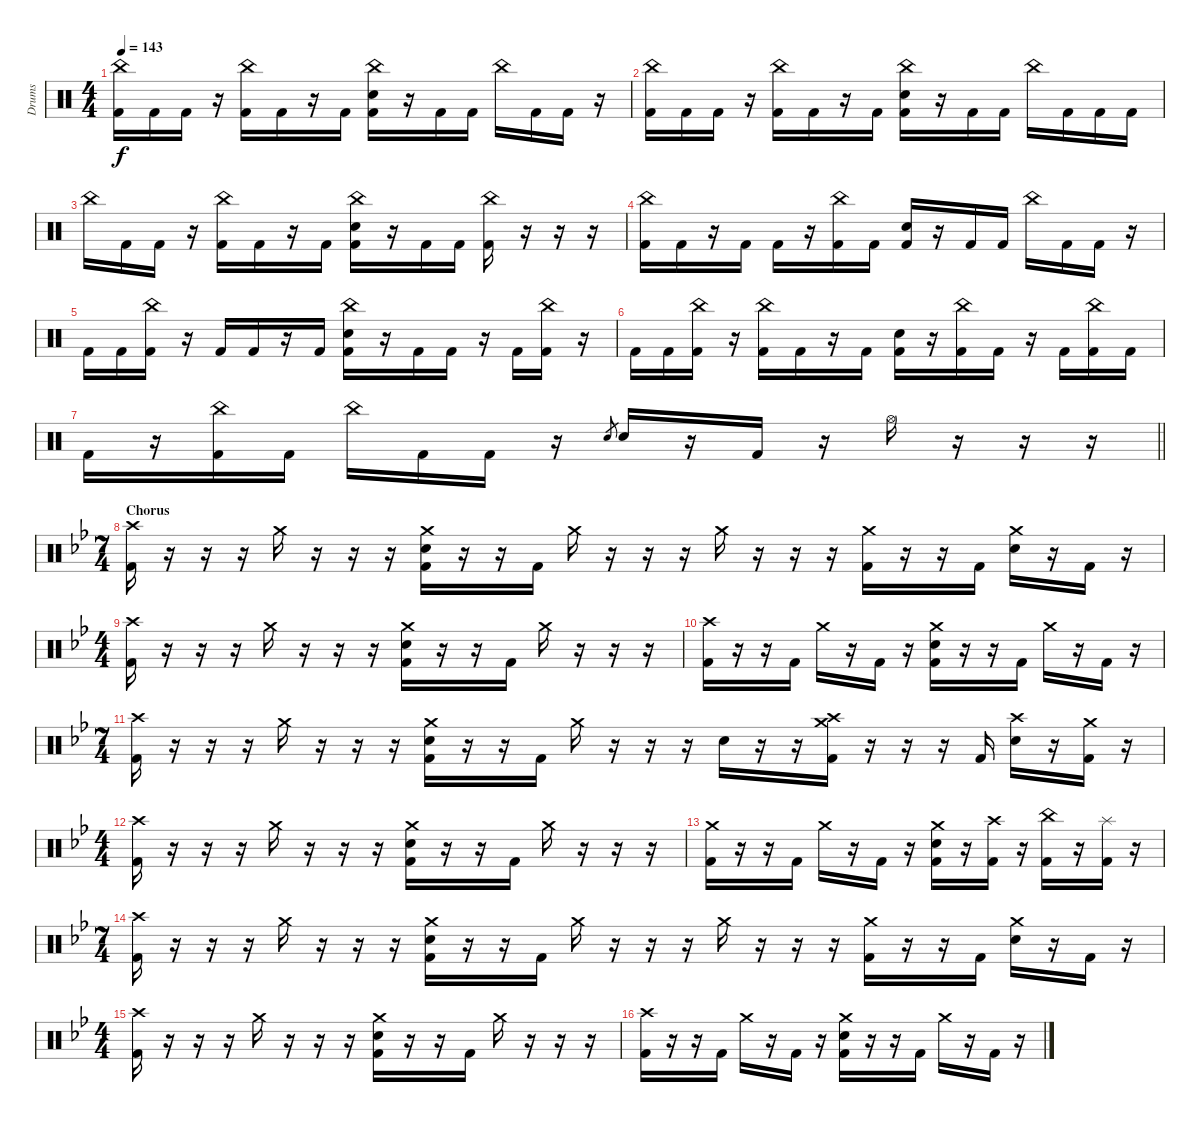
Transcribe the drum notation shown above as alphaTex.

\track ("Drums" "Drums") {instrument percussion}
\staff {score}
\articulation defaults
\ts (4 4)
\tempo 143
\clef neutral
\ks c
("China (hit)" "Kick (hit) 2").16{dy f} "Kick (hit) 2".16 "Kick (hit) 2".16 r.16 ("China (hit)" "Kick (hit) 2").16 "Kick (hit) 2".16 r.16 "Kick (hit) 2".16 ("China (hit)" "Electric Snare (hit)" "Kick (hit) 2").16 r.16 "Kick (hit) 2".16 "Kick (hit) 2".16 "China (hit)".16 "Kick (hit) 2".16 "Kick (hit) 2".16 r.16 |
("China (hit)" "Kick (hit) 2").16 "Kick (hit) 2".16 "Kick (hit) 2".16 r.16 ("China (hit)" "Kick (hit) 2").16 "Kick (hit) 2".16 r.16 "Kick (hit) 2".16 ("China (hit)" "Electric Snare (hit)" "Kick (hit) 2").16 r.16 "Kick (hit) 2".16 "Kick (hit) 2".16 "China (hit)".16 "Kick (hit) 2".16 "Kick (hit) 2".16 "Kick (hit) 2".16 |
"China (hit)".16 "Kick (hit) 2".16 "Kick (hit) 2".16 r.16 ("China (hit)" "Kick (hit) 2").16 "Kick (hit) 2".16 r.16 "Kick (hit) 2".16 ("China (hit)" "Electric Snare (hit)" "Kick (hit) 2").16 r.16 "Kick (hit) 2".16 "Kick (hit) 2".16 ("China (hit)" "Kick (hit) 2").16 r.16 r.16 r.16 |
("China (hit)" "Kick (hit) 2").16 "Kick (hit) 2".16 r.16 "Kick (hit) 2".16 "Kick (hit) 2".16 r.16 ("China (hit)" "Kick (hit) 2").16 "Kick (hit) 2".16 ("Electric Snare (hit)" "Kick (hit) 2").16 r.16 "Kick (hit) 2".16 "Kick (hit) 2".16 "China (hit)".16 "Kick (hit) 2".16 "Kick (hit) 2".16 r.16 |
"Kick (hit) 2".16 "Kick (hit) 2".16 ("China (hit)" "Kick (hit) 2").16 r.16 "Kick (hit) 2".16 "Kick (hit) 2".16 r.16 "Kick (hit) 2".16 ("China (hit)" "Electric Snare (hit)" "Kick (hit) 2").16 r.16 "Kick (hit) 2".16 "Kick (hit) 2".16 r.16 "Kick (hit) 2".16 ("China (hit)" "Kick (hit) 2").16 r.16 |
"Kick (hit) 2".16 "Kick (hit) 2".16 ("China (hit)" "Kick (hit) 2").16 r.16 ("China (hit)" "Kick (hit) 2").16 "Kick (hit) 2".16 r.16 "Kick (hit) 2".16 ("Electric Snare (hit)" "Kick (hit) 2").16 r.16 ("China (hit)" "Kick (hit) 2").16 "Kick (hit) 2".16 r.16 "Kick (hit) 2".16 ("China (hit)" "Kick (hit) 2").16 "Kick (hit) 2".16 |
\barLineRight lightlight "Kick (hit) 2".16
r.16 ("China (hit)" "Kick (hit) 2").16 "Kick (hit) 2".16 "China (hit)".16 "Kick (hit) 2".16 "Kick (hit) 2".16 r.16 "Electric Snare (hit)".8{gr} "Electric Snare (hit)".16 r.16 "Kick (hit) 2".16 r.16 "Hi-Hat (open)".16 r.16 r.16 r.16 |
\ts (7 4)
\section ("" "Chorus")
\ks bb
("Crash high (hit)" "Kick (hit) 2").16 r.16 r.16 r.16 "Crash medium (hit)".16 r.16 r.16 r.16 ("Crash medium (hit)" "Electric Snare (hit)" "Kick (hit) 2").16 r.16 r.16 "Kick (hit) 2".16 "Crash medium (hit)".16 r.16 r.16 r.16 "Crash medium (hit)".16 r.16 r.16 r.16 ("Crash medium (hit)" "Kick (hit) 2").16 r.16 r.16 "Kick (hit) 2".16 ("Crash medium (hit)" "Electric Snare (hit)").16 r.16 "Kick (hit) 2".16 r.16 |
\ts (4 4)
("Crash high (hit)" "Kick (hit) 2").16 r.16 r.16 r.16 "Crash medium (hit)".16 r.16 r.16 r.16 ("Crash medium (hit)" "Electric Snare (hit)" "Kick (hit) 2").16 r.16 r.16 "Kick (hit) 2".16 "Crash medium (hit)".16 r.16 r.16 r.16 |
("Crash high (hit)" "Kick (hit) 2").16 r.16 r.16 "Kick (hit) 2".16 "Crash medium (hit)".16 r.16 "Kick (hit) 2".16 r.16 ("Crash medium (hit)" "Electric Snare (hit)" "Kick (hit) 2").16 r.16 r.16 "Kick (hit) 2".16 "Crash medium (hit)".16 r.16 "Kick (hit) 2".16 r.16 |
\ts (7 4)
("Crash high (hit)" "Kick (hit) 2").16 r.16 r.16 r.16 "Crash medium (hit)".16 r.16 r.16 r.16 ("Crash medium (hit)" "Electric Snare (hit)" "Kick (hit) 2").16 r.16 r.16 "Kick (hit) 2".16 "Crash medium (hit)".16 r.16 r.16 r.16 "Electric Snare (hit)".16 r.16 r.16 ("Crash medium (hit)" "Crash high (hit)" "Kick (hit) 2").16 r.16 r.16 r.16 "Kick (hit) 2".16 ("Crash high (hit)" "Electric Snare (hit)").16 r.16 ("Crash medium (hit)" "Kick (hit) 2").16 r.16 |
\ts (4 4)
("Crash high (hit)" "Kick (hit) 2").16 r.16 r.16 r.16 "Crash medium (hit)".16 r.16 r.16 r.16 ("Crash medium (hit)" "Electric Snare (hit)" "Kick (hit) 2").16 r.16 r.16 "Kick (hit) 2".16 "Crash medium (hit)".16 r.16 r.16 r.16 |
("Crash medium (hit)" "Kick (hit) 2").16 r.16 r.16 "Kick (hit) 2".16 "Crash medium (hit)".16 r.16 "Kick (hit) 2".16 r.16 ("Crash medium (hit)" "Electric Snare (hit)" "Kick (hit) 2").16 r.16 ("Crash high (hit)" "Kick (hit) 2").16 r.16 ("China (hit)" "Kick (hit) 2").16 r.16 ("Splash (hit)" "Kick (hit) 2").16 r.16 |
\ts (7 4)
("Crash high (hit)" "Kick (hit) 2").16 r.16 r.16 r.16 "Crash medium (hit)".16 r.16 r.16 r.16 ("Crash medium (hit)" "Electric Snare (hit)" "Kick (hit) 2").16 r.16 r.16 "Kick (hit) 2".16 "Crash medium (hit)".16 r.16 r.16 r.16 "Crash medium (hit)".16 r.16 r.16 r.16 ("Crash medium (hit)" "Kick (hit) 2").16 r.16 r.16 "Kick (hit) 2".16 ("Crash medium (hit)" "Electric Snare (hit)").16 r.16 "Kick (hit) 2".16 r.16 |
\ts (4 4)
("Crash high (hit)" "Kick (hit) 2").16 r.16 r.16 r.16 "Crash medium (hit)".16 r.16 r.16 r.16 ("Crash medium (hit)" "Electric Snare (hit)" "Kick (hit) 2").16 r.16 r.16 "Kick (hit) 2".16 "Crash medium (hit)".16 r.16 r.16 r.16 |
("Crash high (hit)" "Kick (hit) 2").16 r.16 r.16 "Kick (hit) 2".16 "Crash medium (hit)".16 r.16 "Kick (hit) 2".16 r.16 ("Crash medium (hit)" "Electric Snare (hit)" "Kick (hit) 2").16 r.16 r.16 "Kick (hit) 2".16 "Crash medium (hit)".16 r.16 "Kick (hit) 2".16 r.16
